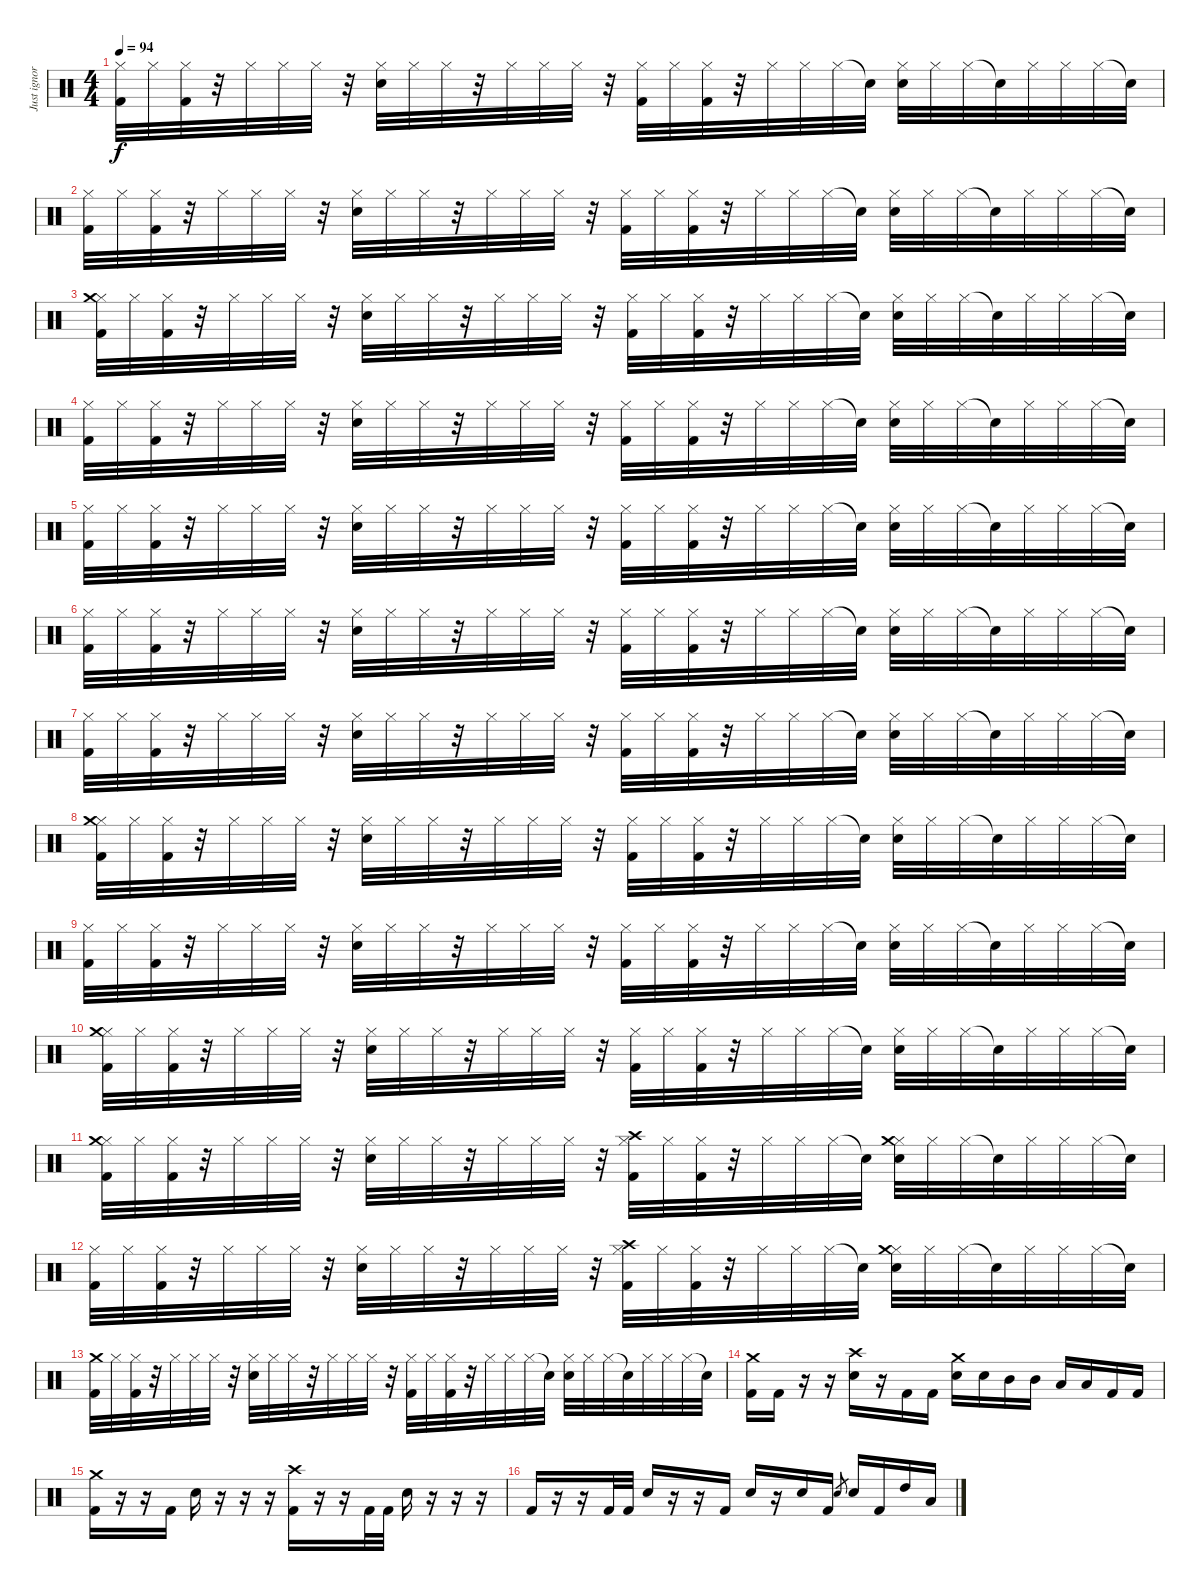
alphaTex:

\track ("Just ignore this track" "Just ignor") {instrument percussion}
\staff {score}
\articulation defaults
\ts (4 4)
\tempo 94
\clef neutral
\ks c
("Hi-Hat (closed)" "Kick (hit) 2").32{dy f} "Hi-Hat (closed)".32 ("Hi-Hat (closed)" "Kick (hit) 2").32 r.32 "Hi-Hat (closed)".32 "Hi-Hat (closed)".32 "Hi-Hat (closed)".32 r.32 ("Hi-Hat (closed)" "Electric Snare (hit)").32 "Hi-Hat (closed)".32 "Hi-Hat (closed)".32 r.32 "Hi-Hat (closed)".32 "Hi-Hat (closed)".32 "Hi-Hat (closed)".32 r.32 ("Hi-Hat (closed)" "Kick (hit) 2").32 "Hi-Hat (closed)".32 ("Hi-Hat (closed)" "Kick (hit) 2").32 r.32 "Hi-Hat (closed)".32 "Hi-Hat (closed)".32 "Hi-Hat (closed)".32 "Snare (hit)"{t}.32 ("Hi-Hat (closed)" "Electric Snare (hit)").32 "Hi-Hat (closed)".32 "Hi-Hat (closed)".32 "Snare (hit)"{t}.32 "Hi-Hat (closed)".32 "Hi-Hat (closed)".32 "Hi-Hat (closed)".32 "Snare (hit)"{t}.32 |
("Hi-Hat (closed)" "Kick (hit) 2").32 "Hi-Hat (closed)".32 ("Hi-Hat (closed)" "Kick (hit) 2").32 r.32 "Hi-Hat (closed)".32 "Hi-Hat (closed)".32 "Hi-Hat (closed)".32 r.32 ("Hi-Hat (closed)" "Electric Snare (hit)").32 "Hi-Hat (closed)".32 "Hi-Hat (closed)".32 r.32 "Hi-Hat (closed)".32 "Hi-Hat (closed)".32 "Hi-Hat (closed)".32 r.32 ("Hi-Hat (closed)" "Kick (hit) 2").32 "Hi-Hat (closed)".32 ("Hi-Hat (closed)" "Kick (hit) 2").32 r.32 "Hi-Hat (closed)".32 "Hi-Hat (closed)".32 "Hi-Hat (closed)".32 "Snare (hit)"{t}.32 ("Hi-Hat (closed)" "Electric Snare (hit)").32 "Hi-Hat (closed)".32 "Hi-Hat (closed)".32 "Snare (hit)"{t}.32 "Hi-Hat (closed)".32 "Hi-Hat (closed)".32 "Hi-Hat (closed)".32 "Snare (hit)"{t}.32 |
("Hi-Hat (closed)" "Crash medium (hit)" "Kick (hit) 2").32 "Hi-Hat (closed)".32 ("Hi-Hat (closed)" "Kick (hit) 2").32 r.32 "Hi-Hat (closed)".32 "Hi-Hat (closed)".32 "Hi-Hat (closed)".32 r.32 ("Hi-Hat (closed)" "Electric Snare (hit)").32 "Hi-Hat (closed)".32 "Hi-Hat (closed)".32 r.32 "Hi-Hat (closed)".32 "Hi-Hat (closed)".32 "Hi-Hat (closed)".32 r.32 ("Hi-Hat (closed)" "Kick (hit) 2").32 "Hi-Hat (closed)".32 ("Hi-Hat (closed)" "Kick (hit) 2").32 r.32 "Hi-Hat (closed)".32 "Hi-Hat (closed)".32 "Hi-Hat (closed)".32 "Snare (hit)"{t}.32 ("Hi-Hat (closed)" "Electric Snare (hit)").32 "Hi-Hat (closed)".32 "Hi-Hat (closed)".32 "Snare (hit)"{t}.32 "Hi-Hat (closed)".32 "Hi-Hat (closed)".32 "Hi-Hat (closed)".32 "Snare (hit)"{t}.32 |
("Hi-Hat (closed)" "Kick (hit) 2").32 "Hi-Hat (closed)".32 ("Hi-Hat (closed)" "Kick (hit) 2").32 r.32 "Hi-Hat (closed)".32 "Hi-Hat (closed)".32 "Hi-Hat (closed)".32 r.32 ("Hi-Hat (closed)" "Electric Snare (hit)").32 "Hi-Hat (closed)".32 "Hi-Hat (closed)".32 r.32 "Hi-Hat (closed)".32 "Hi-Hat (closed)".32 "Hi-Hat (closed)".32 r.32 ("Hi-Hat (closed)" "Kick (hit) 2").32 "Hi-Hat (closed)".32 ("Hi-Hat (closed)" "Kick (hit) 2").32 r.32 "Hi-Hat (closed)".32 "Hi-Hat (closed)".32 "Hi-Hat (closed)".32 "Snare (hit)"{t}.32 ("Hi-Hat (closed)" "Electric Snare (hit)").32 "Hi-Hat (closed)".32 "Hi-Hat (closed)".32 "Snare (hit)"{t}.32 "Hi-Hat (closed)".32 "Hi-Hat (closed)".32 "Hi-Hat (closed)".32 "Snare (hit)"{t}.32 |
("Hi-Hat (closed)" "Kick (hit) 2").32 "Hi-Hat (closed)".32 ("Hi-Hat (closed)" "Kick (hit) 2").32 r.32 "Hi-Hat (closed)".32 "Hi-Hat (closed)".32 "Hi-Hat (closed)".32 r.32 ("Hi-Hat (closed)" "Electric Snare (hit)").32 "Hi-Hat (closed)".32 "Hi-Hat (closed)".32 r.32 "Hi-Hat (closed)".32 "Hi-Hat (closed)".32 "Hi-Hat (closed)".32 r.32 ("Hi-Hat (closed)" "Kick (hit) 2").32 "Hi-Hat (closed)".32 ("Hi-Hat (closed)" "Kick (hit) 2").32 r.32 "Hi-Hat (closed)".32 "Hi-Hat (closed)".32 "Hi-Hat (closed)".32 "Snare (hit)"{t}.32 ("Hi-Hat (closed)" "Electric Snare (hit)").32 "Hi-Hat (closed)".32 "Hi-Hat (closed)".32 "Snare (hit)"{t}.32 "Hi-Hat (closed)".32 "Hi-Hat (closed)".32 "Hi-Hat (closed)".32 "Snare (hit)"{t}.32 |
("Hi-Hat (closed)" "Kick (hit) 2").32 "Hi-Hat (closed)".32 ("Hi-Hat (closed)" "Kick (hit) 2").32 r.32 "Hi-Hat (closed)".32 "Hi-Hat (closed)".32 "Hi-Hat (closed)".32 r.32 ("Hi-Hat (closed)" "Electric Snare (hit)").32 "Hi-Hat (closed)".32 "Hi-Hat (closed)".32 r.32 "Hi-Hat (closed)".32 "Hi-Hat (closed)".32 "Hi-Hat (closed)".32 r.32 ("Hi-Hat (closed)" "Kick (hit) 2").32 "Hi-Hat (closed)".32 ("Hi-Hat (closed)" "Kick (hit) 2").32 r.32 "Hi-Hat (closed)".32 "Hi-Hat (closed)".32 "Hi-Hat (closed)".32 "Snare (hit)"{t}.32 ("Hi-Hat (closed)" "Electric Snare (hit)").32 "Hi-Hat (closed)".32 "Hi-Hat (closed)".32 "Snare (hit)"{t}.32 "Hi-Hat (closed)".32 "Hi-Hat (closed)".32 "Hi-Hat (closed)".32 "Snare (hit)"{t}.32 |
("Hi-Hat (closed)" "Kick (hit) 2").32 "Hi-Hat (closed)".32 ("Hi-Hat (closed)" "Kick (hit) 2").32 r.32 "Hi-Hat (closed)".32 "Hi-Hat (closed)".32 "Hi-Hat (closed)".32 r.32 ("Hi-Hat (closed)" "Electric Snare (hit)").32 "Hi-Hat (closed)".32 "Hi-Hat (closed)".32 r.32 "Hi-Hat (closed)".32 "Hi-Hat (closed)".32 "Hi-Hat (closed)".32 r.32 ("Hi-Hat (closed)" "Kick (hit) 2").32 "Hi-Hat (closed)".32 ("Hi-Hat (closed)" "Kick (hit) 2").32 r.32 "Hi-Hat (closed)".32 "Hi-Hat (closed)".32 "Hi-Hat (closed)".32 "Snare (hit)"{t}.32 ("Hi-Hat (closed)" "Electric Snare (hit)").32 "Hi-Hat (closed)".32 "Hi-Hat (closed)".32 "Snare (hit)"{t}.32 "Hi-Hat (closed)".32 "Hi-Hat (closed)".32 "Hi-Hat (closed)".32 "Snare (hit)"{t}.32 |
("Hi-Hat (closed)" "Crash medium (hit)" "Kick (hit) 2").32 "Hi-Hat (closed)".32 ("Hi-Hat (closed)" "Kick (hit) 2").32 r.32 "Hi-Hat (closed)".32 "Hi-Hat (closed)".32 "Hi-Hat (closed)".32 r.32 ("Hi-Hat (closed)" "Electric Snare (hit)").32 "Hi-Hat (closed)".32 "Hi-Hat (closed)".32 r.32 "Hi-Hat (closed)".32 "Hi-Hat (closed)".32 "Hi-Hat (closed)".32 r.32 ("Hi-Hat (closed)" "Kick (hit) 2").32 "Hi-Hat (closed)".32 ("Hi-Hat (closed)" "Kick (hit) 2").32 r.32 "Hi-Hat (closed)".32 "Hi-Hat (closed)".32 "Hi-Hat (closed)".32 "Snare (hit)"{t}.32 ("Hi-Hat (closed)" "Electric Snare (hit)").32 "Hi-Hat (closed)".32 "Hi-Hat (closed)".32 "Snare (hit)"{t}.32 "Hi-Hat (closed)".32 "Hi-Hat (closed)".32 "Hi-Hat (closed)".32 "Snare (hit)"{t}.32 |
("Hi-Hat (closed)" "Kick (hit) 2").32 "Hi-Hat (closed)".32 ("Hi-Hat (closed)" "Kick (hit) 2").32 r.32 "Hi-Hat (closed)".32 "Hi-Hat (closed)".32 "Hi-Hat (closed)".32 r.32 ("Hi-Hat (closed)" "Electric Snare (hit)").32 "Hi-Hat (closed)".32 "Hi-Hat (closed)".32 r.32 "Hi-Hat (closed)".32 "Hi-Hat (closed)".32 "Hi-Hat (closed)".32 r.32 ("Hi-Hat (closed)" "Kick (hit) 2").32 "Hi-Hat (closed)".32 ("Hi-Hat (closed)" "Kick (hit) 2").32 r.32 "Hi-Hat (closed)".32 "Hi-Hat (closed)".32 "Hi-Hat (closed)".32 "Snare (hit)"{t}.32 ("Hi-Hat (closed)" "Electric Snare (hit)").32 "Hi-Hat (closed)".32 "Hi-Hat (closed)".32 "Snare (hit)"{t}.32 "Hi-Hat (closed)".32 "Hi-Hat (closed)".32 "Hi-Hat (closed)".32 "Snare (hit)"{t}.32 |
("Hi-Hat (closed)" "Crash medium (hit)" "Kick (hit) 2").32 "Hi-Hat (closed)".32 ("Hi-Hat (closed)" "Kick (hit) 2").32 r.32 "Hi-Hat (closed)".32 "Hi-Hat (closed)".32 "Hi-Hat (closed)".32 r.32 ("Hi-Hat (closed)" "Electric Snare (hit)").32 "Hi-Hat (closed)".32 "Hi-Hat (closed)".32 r.32 "Hi-Hat (closed)".32 "Hi-Hat (closed)".32 "Hi-Hat (closed)".32 r.32 ("Hi-Hat (closed)" "Kick (hit) 2").32 "Hi-Hat (closed)".32 ("Hi-Hat (closed)" "Kick (hit) 2").32 r.32 "Hi-Hat (closed)".32 "Hi-Hat (closed)".32 "Hi-Hat (closed)".32 "Snare (hit)"{t}.32 ("Hi-Hat (closed)" "Electric Snare (hit)").32 "Hi-Hat (closed)".32 "Hi-Hat (closed)".32 "Snare (hit)"{t}.32 "Hi-Hat (closed)".32 "Hi-Hat (closed)".32 "Hi-Hat (closed)".32 "Snare (hit)"{t}.32 |
("Hi-Hat (closed)" "Crash medium (hit)" "Kick (hit) 2").32 "Hi-Hat (closed)".32 ("Hi-Hat (closed)" "Kick (hit) 2").32 r.32 "Hi-Hat (closed)".32 "Hi-Hat (closed)".32 "Hi-Hat (closed)".32 r.32 ("Hi-Hat (closed)" "Electric Snare (hit)").32 "Hi-Hat (closed)".32 "Hi-Hat (closed)".32 r.32 "Hi-Hat (closed)".32 "Hi-Hat (closed)".32 "Hi-Hat (closed)".32 r.32 ("Hi-Hat (closed)" "Crash high (hit)" "Kick (hit) 2").32 "Hi-Hat (closed)".32 ("Hi-Hat (closed)" "Kick (hit) 2").32 r.32 "Hi-Hat (closed)".32 "Hi-Hat (closed)".32 "Hi-Hat (closed)".32 "Snare (hit)"{t}.32 ("Hi-Hat (closed)" "Crash medium (hit)" "Electric Snare (hit)").32 "Hi-Hat (closed)".32 "Hi-Hat (closed)".32 "Snare (hit)"{t}.32 "Hi-Hat (closed)".32 "Hi-Hat (closed)".32 "Hi-Hat (closed)".32 "Snare (hit)"{t}.32 |
("Hi-Hat (closed)" "Kick (hit) 2").32 "Hi-Hat (closed)".32 ("Hi-Hat (closed)" "Kick (hit) 2").32 r.32 "Hi-Hat (closed)".32 "Hi-Hat (closed)".32 "Hi-Hat (closed)".32 r.32 ("Hi-Hat (closed)" "Electric Snare (hit)").32 "Hi-Hat (closed)".32 "Hi-Hat (closed)".32 r.32 "Hi-Hat (closed)".32 "Hi-Hat (closed)".32 "Hi-Hat (closed)".32 r.32 ("Hi-Hat (closed)" "Crash high (hit)" "Kick (hit) 2").32 "Hi-Hat (closed)".32 ("Hi-Hat (closed)" "Kick (hit) 2").32 r.32 "Hi-Hat (closed)".32 "Hi-Hat (closed)".32 "Hi-Hat (closed)".32 "Snare (hit)"{t}.32 ("Hi-Hat (closed)" "Crash medium (hit)" "Electric Snare (hit)").32 "Hi-Hat (closed)".32 "Hi-Hat (closed)".32 "Snare (hit)"{t}.32 "Hi-Hat (closed)".32 "Hi-Hat (closed)".32 "Hi-Hat (closed)".32 "Snare (hit)"{t}.32 |
("Crash medium (hit)" "Kick (hit) 2").32 "Hi-Hat (closed)".32 ("Hi-Hat (closed)" "Kick (hit) 2").32 r.32 "Hi-Hat (closed)".32 "Hi-Hat (closed)".32 "Hi-Hat (closed)".32 r.32 ("Hi-Hat (closed)" "Electric Snare (hit)").32 "Hi-Hat (closed)".32 "Hi-Hat (closed)".32 r.32 "Hi-Hat (closed)".32 "Hi-Hat (closed)".32 "Hi-Hat (closed)".32 r.32 ("Hi-Hat (closed)" "Kick (hit) 2").32 "Hi-Hat (closed)".32 ("Hi-Hat (closed)" "Kick (hit) 2").32 r.32 "Hi-Hat (closed)".32 "Hi-Hat (closed)".32 "Hi-Hat (closed)".32 "Snare (hit)"{t}.32 ("Hi-Hat (closed)" "Electric Snare (hit)").32 "Hi-Hat (closed)".32 "Hi-Hat (closed)".32 "Snare (hit)"{t}.32 "Hi-Hat (closed)".32 "Hi-Hat (closed)".32 "Hi-Hat (closed)".32 "Snare (hit)"{t}.32 |
("Crash medium (hit)" "Kick (hit) 2").16 "Kick (hit) 2".16 r.16 r.16 ("Crash high (hit)" "Electric Snare (hit)").16 r.16 "Kick (hit) 2".16 "Kick (hit) 2".16 ("Crash medium (hit)" "Electric Snare (hit)").16 "Electric Snare (hit)".16 "Mid Tom (hit)".16 "Mid Tom (hit)".16 "Low Tom (hit)".16 "Low Tom (hit)".16 "Kick (hit) 2".16 "Kick (hit) 2".16 |
("Crash medium (hit)" "Kick (hit) 2").16 r.16 r.16 "Kick (hit) 2".16 "Electric Snare (hit)".16 r.16 r.16 r.16 ("Crash high (hit)" "Kick (hit) 2").16 r.16 r.16 "Kick (hit) 2".32 "Kick (hit) 2".32 "Electric Snare (hit)".16 r.16 r.16 r.16 |
"Kick (hit) 2".16 r.16 r.16 "Kick (hit) 2".32 "Kick (hit) 2".32 "Electric Snare (hit)".16 r.16 r.16 "Kick (hit) 2".16 "Electric Snare (hit)".16 r.16 "Electric Snare (hit)".16 "Kick (hit) 2".16 "Electric Snare (hit)".8{gr} "Electric Snare (hit)".16 "Kick (hit) 2".16 "High Tom (hit)".16 "Low Tom (hit)".16
